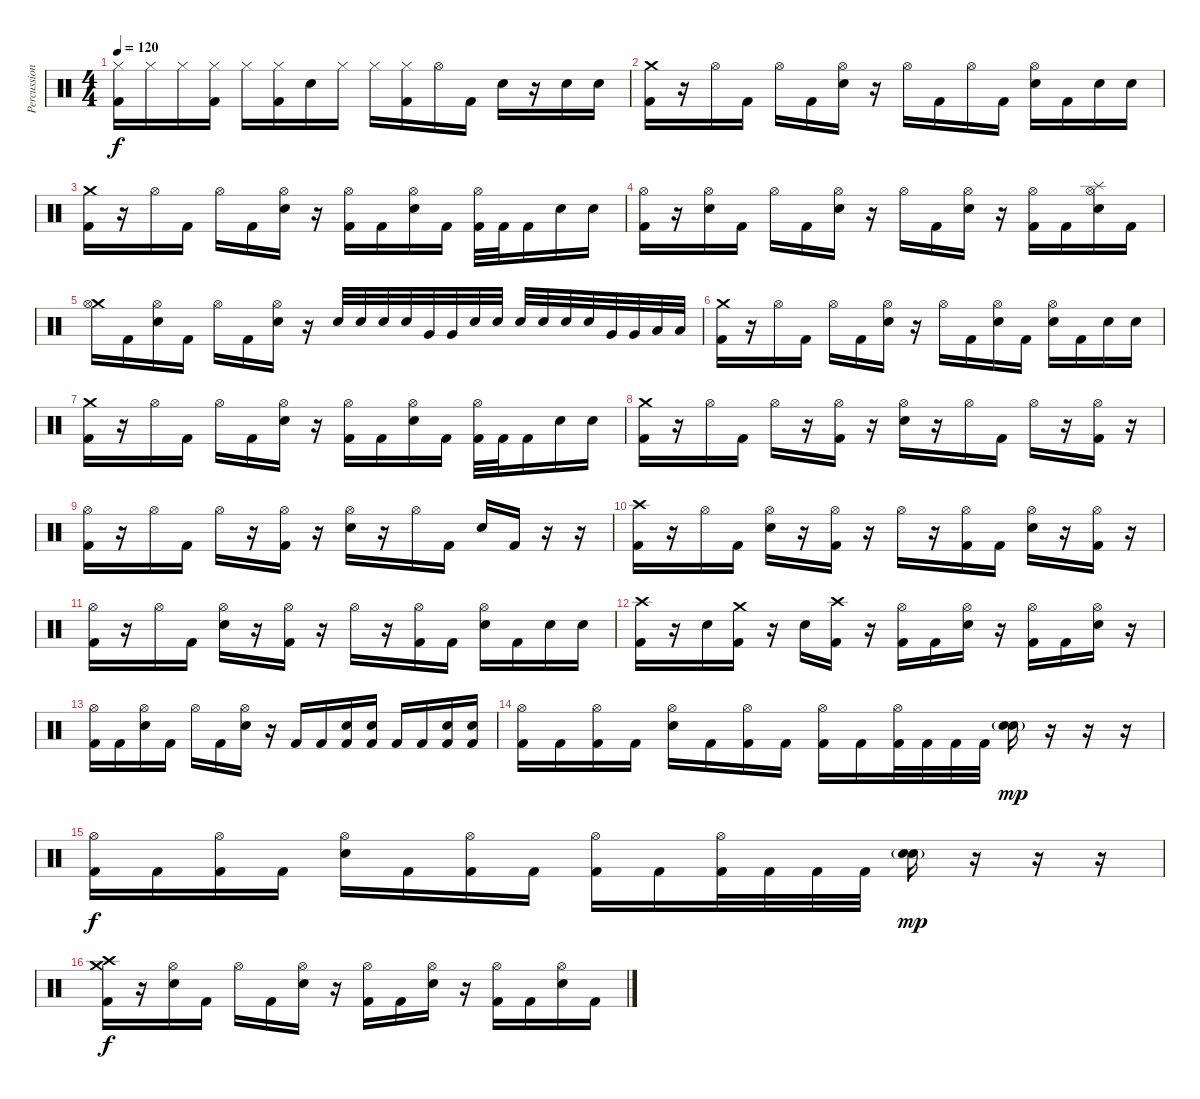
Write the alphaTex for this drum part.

\track ("Percussion" "Percussion") {instrument percussion}
\staff {score}
\articulation defaults
\ts (4 4)
\tempo 120
\clef neutral
\ks c
("Hi-Hat (closed)" "Kick (hit) 2").16{dy f} "Hi-Hat (closed)".16 "Hi-Hat (closed)".16 ("Hi-Hat (closed)" "Kick (hit) 2").16 "Hi-Hat (closed)".16 ("Hi-Hat (closed)" "Kick (hit) 2").16 "Electric Snare (hit)".16 "Hi-Hat (closed)".16 "Hi-Hat (closed)".16 ("Hi-Hat (closed)" "Kick (hit) 2").16 "Hi-Hat (open)".16 "Kick (hit) 2".16 "Electric Snare (hit)".16 r.16 "Electric Snare (hit)".16 "Electric Snare (hit)".16 |
("Crash medium (hit)" "Kick (hit) 2").16 r.16 "Hi-Hat (open)".16 "Kick (hit) 2".16 "Hi-Hat (open)".16 "Kick (hit) 2".16 ("Hi-Hat (open)" "Electric Snare (hit)").16 r.16 "Hi-Hat (open)".16 "Kick (hit) 2".16 "Hi-Hat (open)".16 "Kick (hit) 2".16 ("Hi-Hat (open)" "Electric Snare (hit)").16 "Kick (hit) 2".16 "Electric Snare (hit)".16 "Electric Snare (hit)".16 |
("Crash medium (hit)" "Kick (hit) 2").16 r.16 "Hi-Hat (open)".16 "Kick (hit) 2".16 "Hi-Hat (open)".16 "Kick (hit) 2".16 ("Hi-Hat (open)" "Electric Snare (hit)").16 r.16 ("Hi-Hat (open)" "Kick (hit) 2").16 "Kick (hit) 2".16 ("Hi-Hat (open)" "Electric Snare (hit)").16 "Kick (hit) 2".16 ("Hi-Hat (open)" "Kick (hit) 2").32 "Kick (hit) 2".32 "Kick (hit) 2".16 "Electric Snare (hit)".16 "Electric Snare (hit)".16 |
("Hi-Hat (open)" "Kick (hit) 2").16 r.16 ("Hi-Hat (open)" "Electric Snare (hit)").16 "Kick (hit) 2".16 "Hi-Hat (open)".16 "Kick (hit) 2".16 ("Hi-Hat (open)" "Electric Snare (hit)").16 r.16 "Hi-Hat (open)".16 "Kick (hit) 2".16 ("Hi-Hat (open)" "Electric Snare (hit)").16 r.16 ("Hi-Hat (open)" "Kick (hit) 2").16 "Kick (hit) 2".16 ("Splash (hit)" "Hi-Hat (open)" "Electric Snare (hit)").16 "Kick (hit) 2".16 |
("Crash medium (hit)" "Hi-Hat (open)").16 "Kick (hit) 2".16 ("Hi-Hat (open)" "Electric Snare (hit)").16 "Kick (hit) 2".16 "Hi-Hat (open)".16 "Kick (hit) 2".16 ("Hi-Hat (open)" "Electric Snare (hit)").16 r.16 "Electric Snare (hit)".32 "Electric Snare (hit)".32 "Electric Snare (hit)".32 "Electric Snare (hit)".32 "Very Low Tom (hit)".32 "Very Low Tom (hit)".32 "Electric Snare (hit)".32 "Electric Snare (hit)".32 "Snare (hit) 2".32 "Snare (hit) 2".32 "Electric Snare (hit)".32 "Electric Snare (hit)".32 "Very Low Tom (hit)".32 "Very Low Tom (hit)".32 "Low Floor Tom (hit)".32 "Low Floor Tom (hit)".32 |
("Crash medium (hit)" "Kick (hit) 2").16 r.16 "Hi-Hat (open)".16 "Kick (hit) 2".16 "Hi-Hat (open)".16 "Kick (hit) 2".16 ("Hi-Hat (open)" "Electric Snare (hit)").16 r.16 "Hi-Hat (open)".16 "Kick (hit) 2".16 ("Hi-Hat (open)" "Electric Snare (hit)").16 "Kick (hit) 2".16 ("Hi-Hat (open)" "Electric Snare (hit)").16 "Kick (hit) 2".16 "Electric Snare (hit)".16 "Electric Snare (hit)".16 |
("Crash medium (hit)" "Kick (hit) 2").16 r.16 "Hi-Hat (open)".16 "Kick (hit) 2".16 "Hi-Hat (open)".16 "Kick (hit) 2".16 ("Hi-Hat (open)" "Electric Snare (hit)").16 r.16 ("Hi-Hat (open)" "Kick (hit) 2").16 "Kick (hit) 2".16 ("Hi-Hat (open)" "Electric Snare (hit)").16 "Kick (hit) 2".16 ("Hi-Hat (open)" "Kick (hit) 2").32 "Kick (hit) 2".32 "Kick (hit) 2".16 "Electric Snare (hit)".16 "Electric Snare (hit)".16 |
("Crash medium (hit)" "Kick (hit) 2").16 r.16 "Hi-Hat (open)".16 "Kick (hit) 2".16 "Hi-Hat (open)".16 r.16 ("Hi-Hat (open)" "Kick (hit) 2").16 r.16 ("Hi-Hat (open)" "Electric Snare (hit)").16 r.16 "Hi-Hat (open)".16 "Kick (hit) 2".16 "Hi-Hat (open)".16 r.16 ("Hi-Hat (open)" "Kick (hit) 2").16 r.16 |
("Hi-Hat (open)" "Kick (hit) 2").16 r.16 "Hi-Hat (open)".16 "Kick (hit) 2".16 "Hi-Hat (open)".16 r.16 ("Hi-Hat (open)" "Kick (hit) 2").16 r.16 ("Hi-Hat (open)" "Electric Snare (hit)").16 r.16 "Hi-Hat (open)".16 "Kick (hit) 2".16 "Electric Snare (hit)".16 "Kick (hit) 2".16 r.16 r.16 |
("Crash high (hit)" "Kick (hit) 2").16 r.16 "Hi-Hat (open)".16 "Kick (hit) 2".16 ("Hi-Hat (open)" "Electric Snare (hit)").16 r.16 ("Hi-Hat (open)" "Kick (hit) 2").16 r.16 "Hi-Hat (open)".16 r.16 ("Hi-Hat (open)" "Kick (hit) 2").16 "Kick (hit) 2".16 ("Hi-Hat (open)" "Electric Snare (hit)").16 r.16 ("Hi-Hat (open)" "Kick (hit) 2").16 r.16 |
("Hi-Hat (open)" "Kick (hit) 2").16 r.16 "Hi-Hat (open)".16 "Kick (hit) 2".16 ("Hi-Hat (open)" "Electric Snare (hit)").16 r.16 ("Hi-Hat (open)" "Kick (hit) 2").16 r.16 "Hi-Hat (open)".16 r.16 ("Hi-Hat (open)" "Kick (hit) 2").16 "Kick (hit) 2".16 ("Hi-Hat (open)" "Electric Snare (hit)").16 "Kick (hit) 2".16 "Electric Snare (hit)".16 "Electric Snare (hit)".16 |
("Crash high (hit)" "Kick (hit) 2").16 r.16 "Electric Snare (hit)".16 ("Crash medium (hit)" "Kick (hit) 2").16 r.16 "Electric Snare (hit)".16 ("Crash high (hit)" "Kick (hit) 2").16 r.16 ("Hi-Hat (open)" "Kick (hit) 2").16 "Kick (hit) 2".16 ("Hi-Hat (open)" "Electric Snare (hit)").16 r.16 ("Hi-Hat (open)" "Kick (hit) 2").16 "Kick (hit) 2".16 ("Hi-Hat (open)" "Electric Snare (hit)").16 r.16 |
("Hi-Hat (open)" "Kick (hit) 2").16 "Kick (hit) 2".16 ("Hi-Hat (open)" "Electric Snare (hit)").16 "Kick (hit) 2".16 "Hi-Hat (open)".16 "Kick (hit) 2".16 ("Hi-Hat (open)" "Electric Snare (hit)").16 r.16 "Kick (hit) 2".16 "Kick (hit) 2".16 ("Electric Snare (hit)" "Kick (hit) 2").16 ("Electric Snare (hit)" "Kick (hit) 2").16 "Kick (hit) 2".16 "Kick (hit) 2".16 ("Electric Snare (hit)" "Kick (hit) 2").16 ("Electric Snare (hit)" "Kick (hit) 2").16 |
("Hi-Hat (open)" "Kick (hit) 2").16 "Kick (hit) 2".16 ("Hi-Hat (open)" "Kick (hit) 2").16 "Kick (hit) 2".16 ("Hi-Hat (open)" "Electric Snare (hit)").16 "Kick (hit) 2".16 ("Hi-Hat (open)" "Kick (hit) 2").16 "Kick (hit) 2".16 ("Hi-Hat (open)" "Kick (hit) 2").16 "Kick (hit) 2".16 ("Hi-Hat (open)" "Kick (hit) 2").32 "Kick (hit) 2".32 "Kick (hit) 2".32 "Kick (hit) 2".32 ("Snare (hit) 2"{g} "Electric Snare (hit)").16{dy mp} r.16 r.16 r.16 |
("Hi-Hat (open)" "Kick (hit) 2").16{dy f} "Kick (hit) 2".16 ("Hi-Hat (open)" "Kick (hit) 2").16 "Kick (hit) 2".16 ("Hi-Hat (open)" "Electric Snare (hit)").16 "Kick (hit) 2".16 ("Hi-Hat (open)" "Kick (hit) 2").16 "Kick (hit) 2".16 ("Hi-Hat (open)" "Kick (hit) 2").16 "Kick (hit) 2".16 ("Hi-Hat (open)" "Kick (hit) 2").32 "Kick (hit) 2".32 "Kick (hit) 2".32 "Kick (hit) 2".32 ("Snare (hit) 2"{g} "Electric Snare (hit)").16{dy mp} r.16 r.16 r.16 |
("Crash high (hit)" "Crash medium (hit)" "Kick (hit) 2").16{dy f} r.16 ("Hi-Hat (open)" "Electric Snare (hit)").16 "Kick (hit) 2".16 "Hi-Hat (open)".16 "Kick (hit) 2".16 ("Hi-Hat (open)" "Electric Snare (hit)").16 r.16 ("Hi-Hat (open)" "Kick (hit) 2").16 "Kick (hit) 2".16 ("Hi-Hat (open)" "Electric Snare (hit)").16 r.16 ("Hi-Hat (open)" "Kick (hit) 2").16 "Kick (hit) 2".16 ("Hi-Hat (open)" "Electric Snare (hit)").16 "Kick (hit) 2".16
